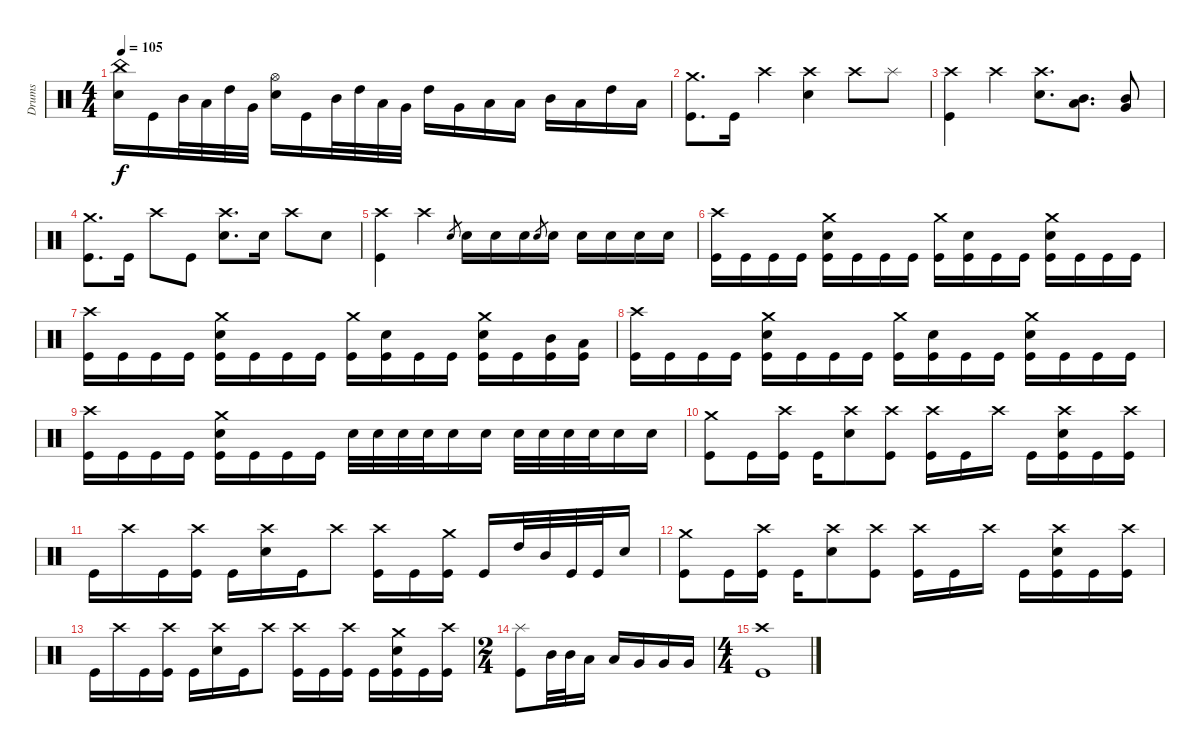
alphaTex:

\track ("Drums" "Drums") {instrument percussion}
\staff {score}
\articulation defaults
\ts (4 4)
\tempo 105
\clef neutral
\ks c
("China (hit)" "Electric Snare (hit)").16{dy f} "Kick (hit)".16 "Mid Tom (hit)".32 "Low Tom (hit)".32 "High Tom (hit)".32 "Very Low Tom (hit)".32 ("Hi-Hat (open)" "Electric Snare (hit)").16 "Kick (hit)".16 "Mid Tom (hit)".32 "High Tom (hit)".32 "Low Tom (hit)".32 "Very Low Tom (hit)".32 "High Tom (hit)".16 "Very Low Tom (hit)".16 "Low Tom (hit)".16 "Low Floor Tom (hit)".16 "Mid Tom (hit)".16 "Low Tom (hit)".16 "High Tom (hit)".16 "Low Floor Tom (hit)".16 |
("Crash medium (hit)" "Kick (hit)").8{d} "Kick (hit)".16 "Crash high (hit)".4 ("Crash high (hit)" "Electric Snare (hit)").4 "Crash high (hit)".8 "Splash (hit)".8 |
("Crash high (hit)" "Kick (hit)").4 "Crash high (hit)".4 ("Crash high (hit)" "Electric Snare (hit)").8{d} ("Mid Tom (hit)" "Low Tom (hit)").8{d} ("Mid Tom (hit)" "Very Low Tom (hit)").8 |
("Crash medium (hit)" "Kick (hit)").8{d} "Kick (hit)".16 "Crash high (hit)".8 "Kick (hit)".8 ("Crash high (hit)" "Electric Snare (hit)").8{d} "Electric Snare (hit)".16 "Crash high (hit)".8 "Electric Snare (hit)".8 |
("Crash high (hit)" "Kick (hit)").4 "Crash high (hit)".4 "Electric Snare (hit)".8{gr} "Electric Snare (hit)".16 "Electric Snare (hit)".16 "Electric Snare (hit)".16 "Electric Snare (hit)".8{gr} "Electric Snare (hit)".16 "Electric Snare (hit)".16 "Electric Snare (hit)".16 "Electric Snare (hit)".16 "Electric Snare (hit)".16 |
("Crash high (hit)" "Kick (hit)").16 "Kick (hit)".16 "Kick (hit)".16 "Kick (hit)".16 ("Crash medium (hit)" "Electric Snare (hit)" "Kick (hit)").16 "Kick (hit)".16 "Kick (hit)".16 "Kick (hit)".16 ("Crash medium (hit)" "Kick (hit)").16 ("Electric Snare (hit)" "Kick (hit)").16 "Kick (hit)".16 "Kick (hit)".16 ("Crash medium (hit)" "Electric Snare (hit)" "Kick (hit)").16 "Kick (hit)".16 "Kick (hit)".16 "Kick (hit)".16 |
("Crash high (hit)" "Kick (hit)").16 "Kick (hit)".16 "Kick (hit)".16 "Kick (hit)".16 ("Crash medium (hit)" "Electric Snare (hit)" "Kick (hit)").16 "Kick (hit)".16 "Kick (hit)".16 "Kick (hit)".16 ("Crash medium (hit)" "Kick (hit)").16 ("Electric Snare (hit)" "Kick (hit)").16 "Kick (hit)".16 "Kick (hit)".16 ("Crash medium (hit)" "Electric Snare (hit)" "Kick (hit)").16 "Kick (hit)".16 ("Mid Tom (hit)" "Kick (hit)").16 ("Low Tom (hit)" "Kick (hit)").16 |
("Crash high (hit)" "Kick (hit)").16 "Kick (hit)".16 "Kick (hit)".16 "Kick (hit)".16 ("Crash medium (hit)" "Electric Snare (hit)" "Kick (hit)").16 "Kick (hit)".16 "Kick (hit)".16 "Kick (hit)".16 ("Crash medium (hit)" "Kick (hit)").16 ("Electric Snare (hit)" "Kick (hit)").16 "Kick (hit)".16 "Kick (hit)".16 ("Crash medium (hit)" "Electric Snare (hit)" "Kick (hit)").16 "Kick (hit)".16 "Kick (hit)".16 "Kick (hit)".16 |
("Crash high (hit)" "Kick (hit)").16 "Kick (hit)".16 "Kick (hit)".16 "Kick (hit)".16 ("Crash medium (hit)" "Electric Snare (hit)" "Kick (hit)").16 "Kick (hit)".16 "Kick (hit)".16 "Kick (hit)".16 "Electric Snare (hit)".32 "Electric Snare (hit)".32 "Electric Snare (hit)".32 "Electric Snare (hit)".32 "Electric Snare (hit)".16 "Electric Snare (hit)".16 "Electric Snare (hit)".32 "Electric Snare (hit)".32 "Electric Snare (hit)".32 "Electric Snare (hit)".32 "Electric Snare (hit)".16 "Electric Snare (hit)".16 |
("Crash medium (hit)" "Kick (hit)").8 "Kick (hit)".16 ("Crash high (hit)" "Kick (hit)").16 "Kick (hit)".16 ("Crash high (hit)" "Electric Snare (hit)").8 ("Crash high (hit)" "Kick (hit)").8 ("Crash high (hit)" "Kick (hit)").16 "Kick (hit)".16 "Crash high (hit)".16 "Kick (hit)".16 ("Crash high (hit)" "Electric Snare (hit)" "Kick (hit)").16 "Kick (hit)".16 ("Crash high (hit)" "Kick (hit)").16 |
"Kick (hit)".16 "Crash high (hit)".16 "Kick (hit)".16 ("Crash high (hit)" "Kick (hit)").16 "Kick (hit)".16 ("Crash high (hit)" "Electric Snare (hit)").16 "Kick (hit)".16 "Crash high (hit)".8 ("Crash high (hit)" "Kick (hit)").16 "Kick (hit)".16 ("Crash medium (hit)" "Kick (hit)").16 "Kick (hit)".16 "High Tom (hit)".32 "Mid Tom (hit)".32 "Kick (hit)".32 "Kick (hit)".32 "Electric Snare (hit)".16 |
("Crash medium (hit)" "Kick (hit)").8 "Kick (hit)".16 ("Crash high (hit)" "Kick (hit)").16 "Kick (hit)".16 ("Crash high (hit)" "Electric Snare (hit)").8 ("Crash high (hit)" "Kick (hit)").8 ("Crash high (hit)" "Kick (hit)").16 "Kick (hit)".16 "Crash high (hit)".16 "Kick (hit)".16 ("Crash high (hit)" "Electric Snare (hit)" "Kick (hit)").16 "Kick (hit)".16 ("Crash high (hit)" "Kick (hit)").16 |
"Kick (hit)".16 "Crash high (hit)".16 "Kick (hit)".16 ("Crash high (hit)" "Kick (hit)").16 "Kick (hit)".16 ("Crash high (hit)" "Electric Snare (hit)").16 "Kick (hit)".16 "Crash high (hit)".8 ("Crash high (hit)" "Kick (hit)").16 "Kick (hit)".16 ("Crash high (hit)" "Kick (hit)").16 "Kick (hit)".16 ("Crash medium (hit)" "Electric Snare (hit)" "Kick (hit)").16 "Kick (hit)".16 ("Crash high (hit)" "Kick (hit)").16 |
\ts (2 4)
("Splash (hit)" "Kick (hit)").8 "Mid Tom (hit)".32 "Mid Tom (hit)".32 "Low Tom (hit)".16 "Low Tom (hit)".16 "Very Low Tom (hit)".16 "Very Low Tom (hit)".16 "Very Low Tom (hit)".16 |
\ts (4 4)
("Crash high (hit)" "Kick (hit)").1
